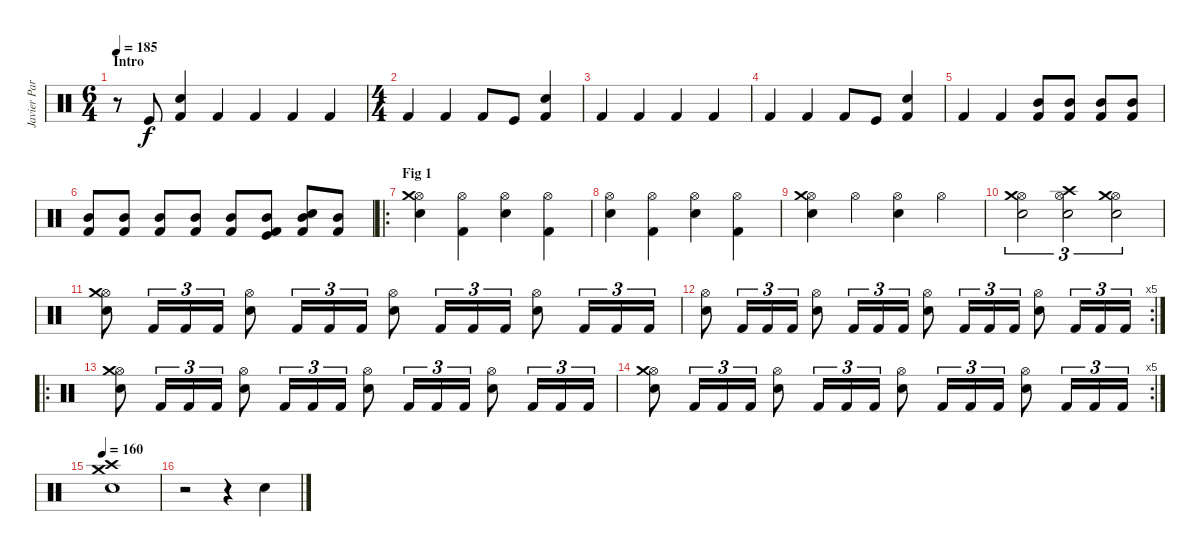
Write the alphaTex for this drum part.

\track ("Javier Partida" "Javier Par") {instrument percussion}
\staff {score}
\articulation defaults
\ts (6 4)
\section ("" "Intro")
\tempo 185
\clef neutral
\ks c
r.8{dy f} "Kick (hit)".8 ("Kick (hit) 2" "Snare (hit) 2").4 "Kick (hit) 2".4 "Kick (hit) 2".4 "Kick (hit) 2".4 "Kick (hit) 2".4 |
\ts (4 4)
"Kick (hit) 2".4 "Kick (hit) 2".4 "Kick (hit) 2".8 "Kick (hit)".8 ("Kick (hit) 2" "Snare (hit) 2").4 |
"Kick (hit) 2".4 "Kick (hit) 2".4 "Kick (hit) 2".4 "Kick (hit) 2".4 |
"Kick (hit) 2".4 "Kick (hit) 2".4 "Kick (hit) 2".8 "Kick (hit)".8 ("Kick (hit) 2" "Snare (hit) 2").4 |
"Kick (hit) 2".4 "Kick (hit) 2".4 ("Kick (hit) 2" "Mid Tom (hit)").8 ("Kick (hit) 2" "Mid Tom (hit)").8 ("Kick (hit) 2" "Mid Tom (hit)").8 ("Kick (hit) 2" "Mid Tom (hit)").8 |
("Kick (hit) 2" "Mid Tom (hit)").8 ("Kick (hit) 2" "Mid Tom (hit)").8 ("Kick (hit) 2" "Mid Tom (hit)").8 ("Kick (hit) 2" "Mid Tom (hit)").8 ("Kick (hit) 2" "Mid Tom (hit)").8 ("Kick (hit) 2" "Mid Tom (hit)" "Kick (hit)").8 ("Kick (hit) 2" "Mid Tom (hit)" "Snare (hit) 2").8 ("Kick (hit) 2" "Mid Tom (hit)").8 |
\ro
\section ("" "Fig 1")
("Hi-Hat (open)" "Snare (hit) 2" "Crash medium (hit)").4 ("Hi-Hat (open)" "Kick (hit) 2").4 ("Hi-Hat (open)" "Snare (hit) 2").4 ("Hi-Hat (open)" "Kick (hit) 2").4 |
("Hi-Hat (open)" "Snare (hit) 2").4 ("Hi-Hat (open)" "Kick (hit) 2").4 ("Hi-Hat (open)" "Snare (hit) 2").4 ("Hi-Hat (open)" "Kick (hit) 2").4 |
("Hi-Hat (open)" "Snare (hit) 2" "Crash medium (hit)").4 "Hi-Hat (open)".4 ("Hi-Hat (open)" "Snare (hit) 2").4 "Hi-Hat (open)".4 |
("Hi-Hat (open)" "Snare (hit) 2" "Crash medium (hit)").2{tu (3 2)} ("Hi-Hat (open)" "Snare (hit) 2" "Crash high (hit)").2{tu (3 2)} ("Hi-Hat (open)" "Snare (hit) 2" "Crash medium (hit)").2{tu (3 2)} |
("Hi-Hat (open)" "Snare (hit) 2" "Crash medium (hit)").8 "Kick (hit) 2".16{tu (3 2)} "Kick (hit) 2".16{tu (3 2)} "Kick (hit) 2".16{tu (3 2)} ("Hi-Hat (open)" "Snare (hit) 2").8 "Kick (hit) 2".16{tu (3 2)} "Kick (hit) 2".16{tu (3 2)} "Kick (hit) 2".16{tu (3 2)} ("Hi-Hat (open)" "Snare (hit) 2").8 "Kick (hit) 2".16{tu (3 2)} "Kick (hit) 2".16{tu (3 2)} "Kick (hit) 2".16{tu (3 2)} ("Hi-Hat (open)" "Snare (hit) 2").8 "Kick (hit) 2".16{tu (3 2)} "Kick (hit) 2".16{tu (3 2)} "Kick (hit) 2".16{tu (3 2)} |
\rc 5
("Hi-Hat (open)" "Snare (hit) 2").8 "Kick (hit) 2".16{tu (3 2)} "Kick (hit) 2".16{tu (3 2)} "Kick (hit) 2".16{tu (3 2)} ("Hi-Hat (open)" "Snare (hit) 2").8 "Kick (hit) 2".16{tu (3 2)} "Kick (hit) 2".16{tu (3 2)} "Kick (hit) 2".16{tu (3 2)} ("Hi-Hat (open)" "Snare (hit) 2").8 "Kick (hit) 2".16{tu (3 2)} "Kick (hit) 2".16{tu (3 2)} "Kick (hit) 2".16{tu (3 2)} ("Hi-Hat (open)" "Snare (hit) 2").8 "Kick (hit) 2".16{tu (3 2)} "Kick (hit) 2".16{tu (3 2)} "Kick (hit) 2".16{tu (3 2)} |
\ro
("Hi-Hat (open)" "Snare (hit) 2" "Crash medium (hit)").8 "Kick (hit) 2".16{tu (3 2)} "Kick (hit) 2".16{tu (3 2)} "Kick (hit) 2".16{tu (3 2)} ("Hi-Hat (open)" "Snare (hit) 2").8 "Kick (hit) 2".16{tu (3 2)} "Kick (hit) 2".16{tu (3 2)} "Kick (hit) 2".16{tu (3 2)} ("Hi-Hat (open)" "Snare (hit) 2").8 "Kick (hit) 2".16{tu (3 2)} "Kick (hit) 2".16{tu (3 2)} "Kick (hit) 2".16{tu (3 2)} ("Hi-Hat (open)" "Snare (hit) 2").8 "Kick (hit) 2".16{tu (3 2)} "Kick (hit) 2".16{tu (3 2)} "Kick (hit) 2".16{tu (3 2)} |
\rc 5
("Hi-Hat (open)" "Snare (hit) 2" "Crash medium (hit)").8 "Kick (hit) 2".16{tu (3 2)} "Kick (hit) 2".16{tu (3 2)} "Kick (hit) 2".16{tu (3 2)} ("Hi-Hat (open)" "Snare (hit) 2").8 "Kick (hit) 2".16{tu (3 2)} "Kick (hit) 2".16{tu (3 2)} "Kick (hit) 2".16{tu (3 2)} ("Hi-Hat (open)" "Snare (hit) 2").8 "Kick (hit) 2".16{tu (3 2)} "Kick (hit) 2".16{tu (3 2)} "Kick (hit) 2".16{tu (3 2)} ("Hi-Hat (open)" "Snare (hit) 2").8 "Kick (hit) 2".16{tu (3 2)} "Kick (hit) 2".16{tu (3 2)} "Kick (hit) 2".16{tu (3 2)} |
\tempo 160
("Snare (hit) 2" "Crash high (hit)" "Crash medium (hit)").1 |
r.2 r.4 "Snare (hit) 2".4
